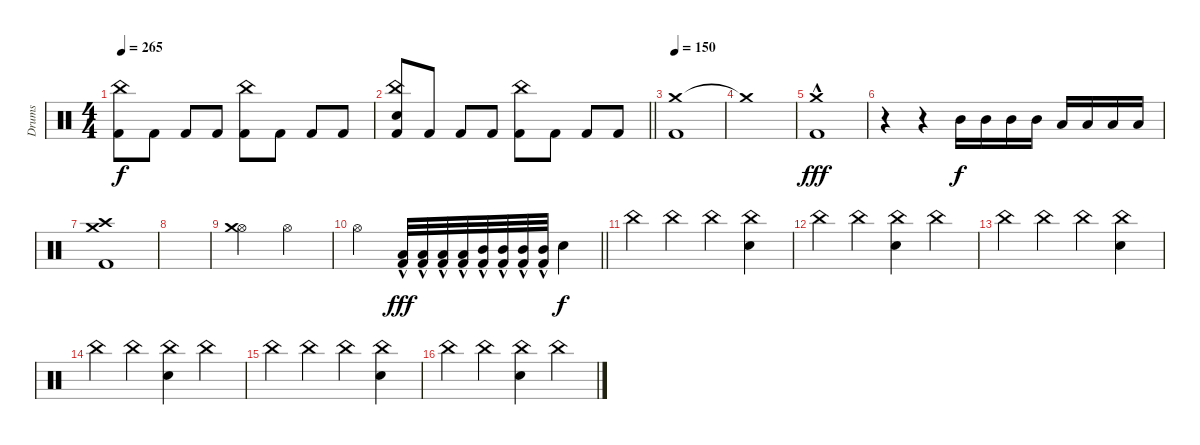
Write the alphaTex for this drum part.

\track ("Drums" "Drums") {instrument percussion}
\staff {score}
\articulation defaults
\ts (4 4)
\tempo 265
\clef neutral
\ks c
("Kick (hit) 2" "China (hit)").8{dy f} "Kick (hit) 2".8 "Kick (hit) 2".8 "Kick (hit) 2".8 ("Kick (hit) 2" "China (hit)").8 "Kick (hit) 2".8 "Kick (hit) 2".8 "Kick (hit) 2".8 |
\barLineRight lightlight
("Kick (hit) 2" "China (hit)" "Electric Snare (hit)").8 "Kick (hit) 2".8 "Kick (hit) 2".8 "Kick (hit) 2".8 ("Kick (hit) 2" "China (hit)").8 "Kick (hit) 2".8 "Kick (hit) 2".8 "Kick (hit) 2".8 |
\tempo 150
("Crash medium (hit)" "Kick (hit) 2").1 |
"Crash medium (hit)"{t}.1 |
("Crash medium (hit)"{hac} "Kick (hit) 2").1{dy fff} |
r.4 r.4 "Mid Tom (hit)".16{dy f} "Mid Tom (hit)".16 "Mid Tom (hit)".16 "Mid Tom (hit)".16 "Low Tom (hit)".16 "Low Tom (hit)".16 "Low Tom (hit)".16 "Low Tom (hit)".16 |
("Crash medium (hit)" "Crash high (hit)" "Kick (hit) 2").1 |
|
("Hi-Hat (open)" "Crash medium (hit)").2 "Hi-Hat (open)".2 |
\barLineRight lightlight "Hi-Hat (open)".2
("Kick (hit) 2"{hac} "Low Tom (hit)"{hac}).32{dy fff} ("Kick (hit) 2"{hac} "Low Tom (hit)"{hac}).32 ("Kick (hit) 2"{hac} "Low Tom (hit)"{hac}).32 ("Kick (hit) 2"{hac} "Low Tom (hit)"{hac}).32 ("Kick (hit) 2"{hac} "Mid Tom (hit)"{hac}).32 ("Kick (hit) 2"{hac} "Mid Tom (hit)"{hac}).32 ("Kick (hit) 2"{hac} "Mid Tom (hit)"{hac}).32 ("Kick (hit) 2"{hac} "Mid Tom (hit)"{hac}).32 "Electric Snare (hit)".4{dy f} |
"China (hit)".4 "China (hit)".4 "China (hit)".4 ("China (hit)" "Electric Snare (hit)").4 |
"China (hit)".4 "China (hit)".4 ("China (hit)" "Electric Snare (hit)").4 "China (hit)".4 |
"China (hit)".4 "China (hit)".4 "China (hit)".4 ("China (hit)" "Electric Snare (hit)").4 |
"China (hit)".4 "China (hit)".4 ("China (hit)" "Electric Snare (hit)").4 "China (hit)".4 |
"China (hit)".4 "China (hit)".4 "China (hit)".4 ("China (hit)" "Electric Snare (hit)").4 |
"China (hit)".4 "China (hit)".4 ("China (hit)" "Electric Snare (hit)").4 "China (hit)".4
